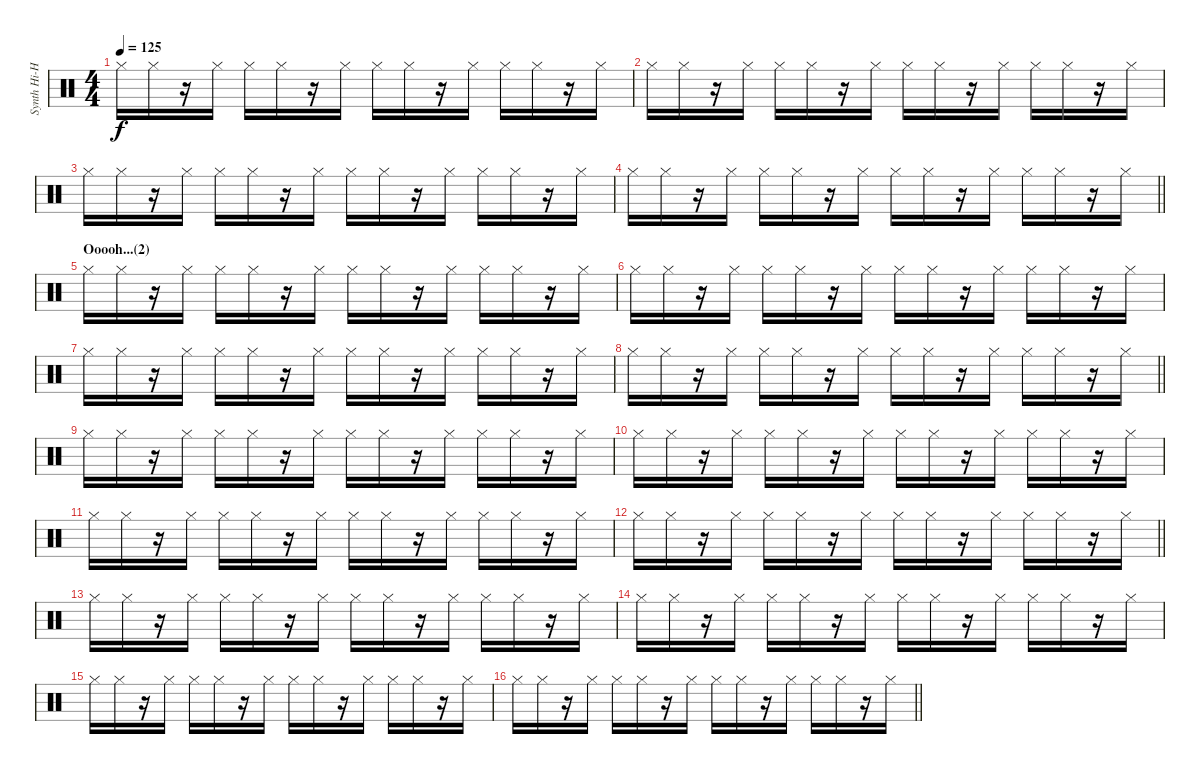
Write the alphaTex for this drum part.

\track ("Synth Hi-Hat (Gillian)" "Synth Hi-H") {instrument percussion}
\staff {score}
\articulation defaults
\ts (4 4)
\tempo 125
\clef neutral
\ks c "Hi-Hat (closed)".16{dy f} "Hi-Hat (closed)".16
r.16 "Hi-Hat (closed)".16 "Hi-Hat (closed)".16 "Hi-Hat (closed)".16 r.16 "Hi-Hat (closed)".16 "Hi-Hat (closed)".16 "Hi-Hat (closed)".16 r.16 "Hi-Hat (closed)".16 "Hi-Hat (closed)".16 "Hi-Hat (closed)".16 r.16 "Hi-Hat (closed)".16 |
"Hi-Hat (closed)".16 "Hi-Hat (closed)".16 r.16 "Hi-Hat (closed)".16 "Hi-Hat (closed)".16 "Hi-Hat (closed)".16 r.16 "Hi-Hat (closed)".16 "Hi-Hat (closed)".16 "Hi-Hat (closed)".16 r.16 "Hi-Hat (closed)".16 "Hi-Hat (closed)".16 "Hi-Hat (closed)".16 r.16 "Hi-Hat (closed)".16 |
"Hi-Hat (closed)".16 "Hi-Hat (closed)".16 r.16 "Hi-Hat (closed)".16 "Hi-Hat (closed)".16 "Hi-Hat (closed)".16 r.16 "Hi-Hat (closed)".16 "Hi-Hat (closed)".16 "Hi-Hat (closed)".16 r.16 "Hi-Hat (closed)".16 "Hi-Hat (closed)".16 "Hi-Hat (closed)".16 r.16 "Hi-Hat (closed)".16 |
\barLineRight lightlight "Hi-Hat (closed)".16 "Hi-Hat (closed)".16
r.16 "Hi-Hat (closed)".16 "Hi-Hat (closed)".16 "Hi-Hat (closed)".16 r.16 "Hi-Hat (closed)".16 "Hi-Hat (closed)".16 "Hi-Hat (closed)".16 r.16 "Hi-Hat (closed)".16 "Hi-Hat (closed)".16 "Hi-Hat (closed)".16 r.16 "Hi-Hat (closed)".16 |
\section ("" "Ooooh...(2)")
"Hi-Hat (closed)".16 "Hi-Hat (closed)".16 r.16 "Hi-Hat (closed)".16 "Hi-Hat (closed)".16 "Hi-Hat (closed)".16 r.16 "Hi-Hat (closed)".16 "Hi-Hat (closed)".16 "Hi-Hat (closed)".16 r.16 "Hi-Hat (closed)".16 "Hi-Hat (closed)".16 "Hi-Hat (closed)".16 r.16 "Hi-Hat (closed)".16 |
"Hi-Hat (closed)".16 "Hi-Hat (closed)".16 r.16 "Hi-Hat (closed)".16 "Hi-Hat (closed)".16 "Hi-Hat (closed)".16 r.16 "Hi-Hat (closed)".16 "Hi-Hat (closed)".16 "Hi-Hat (closed)".16 r.16 "Hi-Hat (closed)".16 "Hi-Hat (closed)".16 "Hi-Hat (closed)".16 r.16 "Hi-Hat (closed)".16 |
"Hi-Hat (closed)".16 "Hi-Hat (closed)".16 r.16 "Hi-Hat (closed)".16 "Hi-Hat (closed)".16 "Hi-Hat (closed)".16 r.16 "Hi-Hat (closed)".16 "Hi-Hat (closed)".16 "Hi-Hat (closed)".16 r.16 "Hi-Hat (closed)".16 "Hi-Hat (closed)".16 "Hi-Hat (closed)".16 r.16 "Hi-Hat (closed)".16 |
\barLineRight lightlight "Hi-Hat (closed)".16 "Hi-Hat (closed)".16
r.16 "Hi-Hat (closed)".16 "Hi-Hat (closed)".16 "Hi-Hat (closed)".16 r.16 "Hi-Hat (closed)".16 "Hi-Hat (closed)".16 "Hi-Hat (closed)".16 r.16 "Hi-Hat (closed)".16 "Hi-Hat (closed)".16 "Hi-Hat (closed)".16 r.16 "Hi-Hat (closed)".16 |
"Hi-Hat (closed)".16 "Hi-Hat (closed)".16 r.16 "Hi-Hat (closed)".16 "Hi-Hat (closed)".16 "Hi-Hat (closed)".16 r.16 "Hi-Hat (closed)".16 "Hi-Hat (closed)".16 "Hi-Hat (closed)".16 r.16 "Hi-Hat (closed)".16 "Hi-Hat (closed)".16 "Hi-Hat (closed)".16 r.16 "Hi-Hat (closed)".16 |
"Hi-Hat (closed)".16 "Hi-Hat (closed)".16 r.16 "Hi-Hat (closed)".16 "Hi-Hat (closed)".16 "Hi-Hat (closed)".16 r.16 "Hi-Hat (closed)".16 "Hi-Hat (closed)".16 "Hi-Hat (closed)".16 r.16 "Hi-Hat (closed)".16 "Hi-Hat (closed)".16 "Hi-Hat (closed)".16 r.16 "Hi-Hat (closed)".16 |
"Hi-Hat (closed)".16 "Hi-Hat (closed)".16 r.16 "Hi-Hat (closed)".16 "Hi-Hat (closed)".16 "Hi-Hat (closed)".16 r.16 "Hi-Hat (closed)".16 "Hi-Hat (closed)".16 "Hi-Hat (closed)".16 r.16 "Hi-Hat (closed)".16 "Hi-Hat (closed)".16 "Hi-Hat (closed)".16 r.16 "Hi-Hat (closed)".16 |
\barLineRight lightlight "Hi-Hat (closed)".16 "Hi-Hat (closed)".16
r.16 "Hi-Hat (closed)".16 "Hi-Hat (closed)".16 "Hi-Hat (closed)".16 r.16 "Hi-Hat (closed)".16 "Hi-Hat (closed)".16 "Hi-Hat (closed)".16 r.16 "Hi-Hat (closed)".16 "Hi-Hat (closed)".16 "Hi-Hat (closed)".16 r.16 "Hi-Hat (closed)".16 |
"Hi-Hat (closed)".16 "Hi-Hat (closed)".16 r.16 "Hi-Hat (closed)".16 "Hi-Hat (closed)".16 "Hi-Hat (closed)".16 r.16 "Hi-Hat (closed)".16 "Hi-Hat (closed)".16 "Hi-Hat (closed)".16 r.16 "Hi-Hat (closed)".16 "Hi-Hat (closed)".16 "Hi-Hat (closed)".16 r.16 "Hi-Hat (closed)".16 |
"Hi-Hat (closed)".16 "Hi-Hat (closed)".16 r.16 "Hi-Hat (closed)".16 "Hi-Hat (closed)".16 "Hi-Hat (closed)".16 r.16 "Hi-Hat (closed)".16 "Hi-Hat (closed)".16 "Hi-Hat (closed)".16 r.16 "Hi-Hat (closed)".16 "Hi-Hat (closed)".16 "Hi-Hat (closed)".16 r.16 "Hi-Hat (closed)".16 |
"Hi-Hat (closed)".16 "Hi-Hat (closed)".16 r.16 "Hi-Hat (closed)".16 "Hi-Hat (closed)".16 "Hi-Hat (closed)".16 r.16 "Hi-Hat (closed)".16 "Hi-Hat (closed)".16 "Hi-Hat (closed)".16 r.16 "Hi-Hat (closed)".16 "Hi-Hat (closed)".16 "Hi-Hat (closed)".16 r.16 "Hi-Hat (closed)".16 |
\barLineRight lightlight "Hi-Hat (closed)".16 "Hi-Hat (closed)".16
r.16 "Hi-Hat (closed)".16 "Hi-Hat (closed)".16 "Hi-Hat (closed)".16 r.16 "Hi-Hat (closed)".16 "Hi-Hat (closed)".16 "Hi-Hat (closed)".16 r.16 "Hi-Hat (closed)".16 "Hi-Hat (closed)".16 "Hi-Hat (closed)".16 r.16 "Hi-Hat (closed)".16
